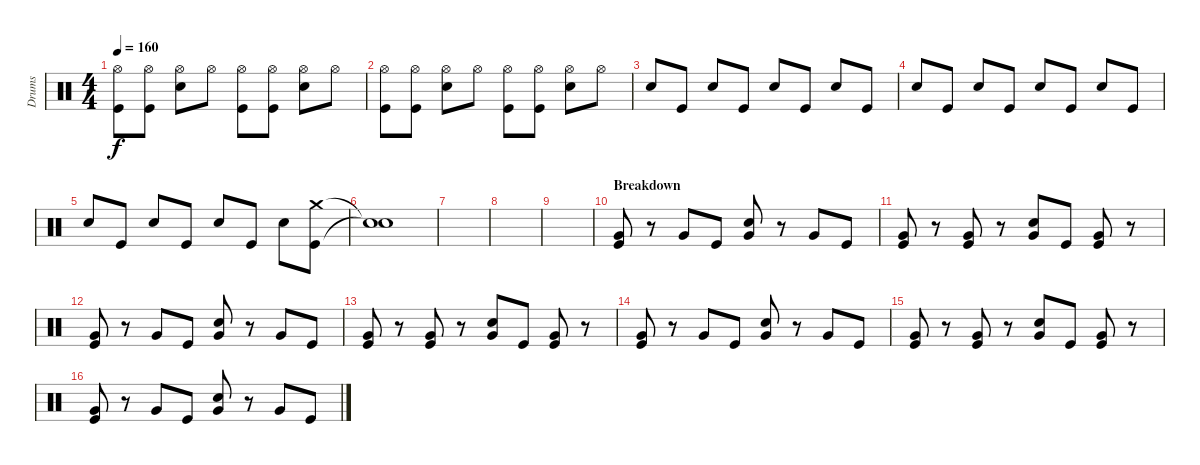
\track ("Drums" "Drums") {instrument percussion}
\staff {score}
\articulation defaults
\ts (4 4)
\tempo 160
\clef neutral
\ks c
("Hi-Hat (open)" "Kick (hit)").8{dy f} ("Hi-Hat (open)" "Kick (hit)").8 ("Hi-Hat (open)" "Electric Snare (hit)").8 "Hi-Hat (open)".8 ("Hi-Hat (open)" "Kick (hit)").8 ("Hi-Hat (open)" "Kick (hit)").8 ("Hi-Hat (open)" "Electric Snare (hit)").8 "Hi-Hat (open)".8 |
("Hi-Hat (open)" "Kick (hit)").8 ("Hi-Hat (open)" "Kick (hit)").8 ("Hi-Hat (open)" "Electric Snare (hit)").8 "Hi-Hat (open)".8 ("Hi-Hat (open)" "Kick (hit)").8 ("Hi-Hat (open)" "Kick (hit)").8 ("Hi-Hat (open)" "Electric Snare (hit)").8 "Hi-Hat (open)".8 |
"Electric Snare (hit)".8 "Kick (hit)".8 "Electric Snare (hit)".8 "Kick (hit)".8 "Electric Snare (hit)".8 "Kick (hit)".8 "Electric Snare (hit)".8 "Kick (hit)".8 |
"Electric Snare (hit)".8 "Kick (hit)".8 "Electric Snare (hit)".8 "Kick (hit)".8 "Electric Snare (hit)".8 "Kick (hit)".8 "Electric Snare (hit)".8 "Kick (hit)".8 |
"Electric Snare (hit)".8 "Kick (hit)".8 "Electric Snare (hit)".8 "Kick (hit)".8 "Electric Snare (hit)".8 "Kick (hit)".8 "Electric Snare (hit)".8 ("Crash medium (hit)" "Kick (hit)").8 |
("Snare (hit)"{t} "Snare (hit)"{t}).1 |
|
|
|
\section ("" "Breakdown")
("Very Low Tom (hit)" "Kick (hit)").8 r.8 "Very Low Tom (hit)".8 "Kick (hit)".8 ("Very Low Tom (hit)" "Electric Snare (hit)").8 r.8 "Very Low Tom (hit)".8 "Kick (hit)".8 |
("Very Low Tom (hit)" "Kick (hit)").8 r.8 ("Very Low Tom (hit)" "Kick (hit)").8 r.8 ("Very Low Tom (hit)" "Electric Snare (hit)").8 "Kick (hit)".8 ("Very Low Tom (hit)" "Kick (hit)").8 r.8 |
("Very Low Tom (hit)" "Kick (hit)").8 r.8 "Very Low Tom (hit)".8 "Kick (hit)".8 ("Very Low Tom (hit)" "Electric Snare (hit)").8 r.8 "Very Low Tom (hit)".8 "Kick (hit)".8 |
("Very Low Tom (hit)" "Kick (hit)").8 r.8 ("Very Low Tom (hit)" "Kick (hit)").8 r.8 ("Very Low Tom (hit)" "Electric Snare (hit)").8 "Kick (hit)".8 ("Very Low Tom (hit)" "Kick (hit)").8 r.8 |
("Very Low Tom (hit)" "Kick (hit)").8 r.8 "Very Low Tom (hit)".8 "Kick (hit)".8 ("Very Low Tom (hit)" "Electric Snare (hit)").8 r.8 "Very Low Tom (hit)".8 "Kick (hit)".8 |
("Very Low Tom (hit)" "Kick (hit)").8 r.8 ("Very Low Tom (hit)" "Kick (hit)").8 r.8 ("Very Low Tom (hit)" "Electric Snare (hit)").8 "Kick (hit)".8 ("Very Low Tom (hit)" "Kick (hit)").8 r.8 |
("Very Low Tom (hit)" "Kick (hit)").8 r.8 "Very Low Tom (hit)".8 "Kick (hit)".8 ("Very Low Tom (hit)" "Electric Snare (hit)").8 r.8 "Very Low Tom (hit)".8 "Kick (hit)".8
